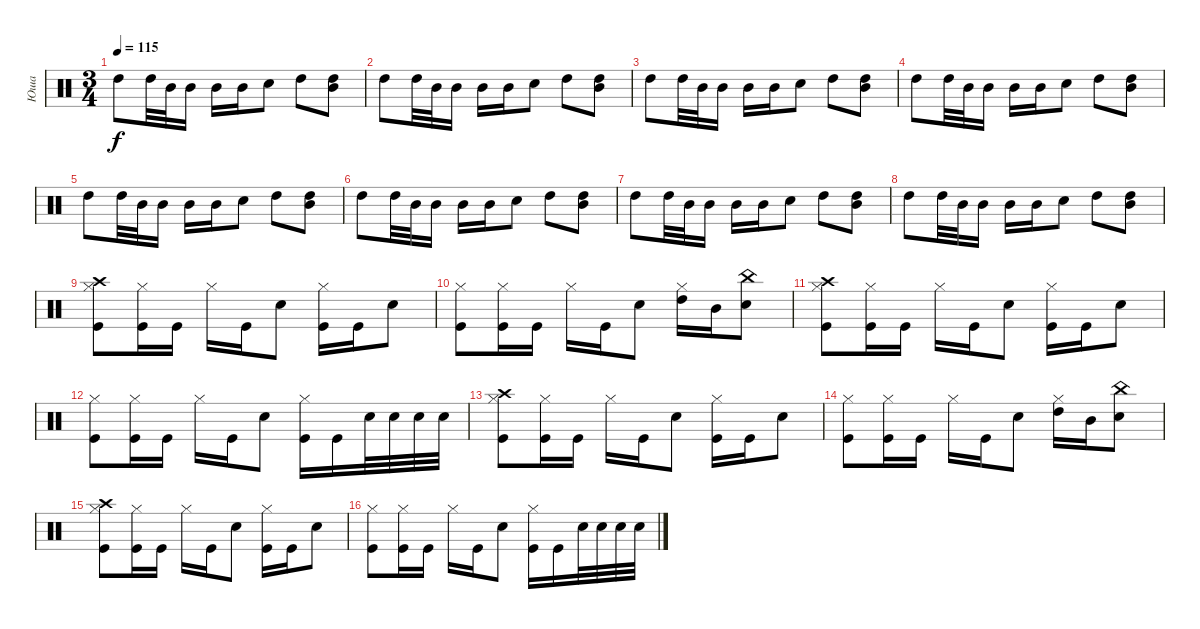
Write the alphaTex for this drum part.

\track ("Юша" "Юша") {instrument percussion}
\staff {score}
\articulation defaults
\ts (3 4)
\tempo 115
\clef neutral
\ks c "High Tom (hit)".8{dy f} "High Tom (hit)".32 "Mid Tom (hit)".32 "Mid Tom (hit)".16 "Mid Tom (hit)".16 "Mid Tom (hit)".16 "Snare (hit) 2".8 "High Tom (hit)".8
("High Tom (hit)" "Mid Tom (hit)").8 |
"High Tom (hit)".8 "High Tom (hit)".32 "Mid Tom (hit)".32 "Mid Tom (hit)".16 "Mid Tom (hit)".16 "Mid Tom (hit)".16 "Snare (hit) 2".8 "High Tom (hit)".8 ("High Tom (hit)" "Mid Tom (hit)").8 |
"High Tom (hit)".8 "High Tom (hit)".32 "Mid Tom (hit)".32 "Mid Tom (hit)".16 "Mid Tom (hit)".16 "Mid Tom (hit)".16 "Snare (hit) 2".8 "High Tom (hit)".8 ("High Tom (hit)" "Mid Tom (hit)").8 |
"High Tom (hit)".8 "High Tom (hit)".32 "Mid Tom (hit)".32 "Mid Tom (hit)".16 "Mid Tom (hit)".16 "Mid Tom (hit)".16 "Snare (hit) 2".8 "High Tom (hit)".8 ("High Tom (hit)" "Mid Tom (hit)").8 |
"High Tom (hit)".8 "High Tom (hit)".32 "Mid Tom (hit)".32 "Mid Tom (hit)".16 "Mid Tom (hit)".16 "Mid Tom (hit)".16 "Snare (hit) 2".8 "High Tom (hit)".8 ("High Tom (hit)" "Mid Tom (hit)").8 |
"High Tom (hit)".8 "High Tom (hit)".32 "Mid Tom (hit)".32 "Mid Tom (hit)".16 "Mid Tom (hit)".16 "Mid Tom (hit)".16 "Snare (hit) 2".8 "High Tom (hit)".8 ("High Tom (hit)" "Mid Tom (hit)").8 |
"High Tom (hit)".8 "High Tom (hit)".32 "Mid Tom (hit)".32 "Mid Tom (hit)".16 "Mid Tom (hit)".16 "Mid Tom (hit)".16 "Snare (hit) 2".8 "High Tom (hit)".8 ("High Tom (hit)" "Mid Tom (hit)").8 |
"High Tom (hit)".8 "High Tom (hit)".32 "Mid Tom (hit)".32 "Mid Tom (hit)".16 "Mid Tom (hit)".16 "Mid Tom (hit)".16 "Snare (hit) 2".8 "High Tom (hit)".8 ("High Tom (hit)" "Mid Tom (hit)").8 |
("Hi-Hat (closed)" "Kick (hit)" "Crash high (hit)").8 ("Kick (hit)" "Hi-Hat (closed)").16 "Kick (hit)".16 "Hi-Hat (closed)".16 "Kick (hit)".16 "Snare (hit) 2".8 ("Kick (hit)" "Hi-Hat (closed)").16 "Kick (hit)".16 "Snare (hit) 2".8 |
("Hi-Hat (closed)" "Kick (hit)").8 ("Kick (hit)" "Hi-Hat (closed)").16 "Kick (hit)".16 "Hi-Hat (closed)".16 "Kick (hit)".16 "Snare (hit) 2".8 ("Hi-Hat (closed)" "High Tom (hit)").16 "Mid Tom (hit)".16 ("Snare (hit) 2" "China (hit)").8 |
("Hi-Hat (closed)" "Kick (hit)" "Crash high (hit)").8 ("Kick (hit)" "Hi-Hat (closed)").16 "Kick (hit)".16 "Hi-Hat (closed)".16 "Kick (hit)".16 "Snare (hit) 2".8 ("Kick (hit)" "Hi-Hat (closed)").16 "Kick (hit)".16 "Snare (hit) 2".8 |
("Hi-Hat (closed)" "Kick (hit)").8 ("Kick (hit)" "Hi-Hat (closed)").16 "Kick (hit)".16 "Hi-Hat (closed)".16 "Kick (hit)".16 "Snare (hit) 2".8 ("Kick (hit)" "Hi-Hat (closed)").16 "Kick (hit)".16 "Snare (hit) 2".32 "Snare (hit) 2".32 "Snare (hit) 2".32 "Snare (hit) 2".32 |
("Hi-Hat (closed)" "Kick (hit)" "Crash high (hit)").8 ("Kick (hit)" "Hi-Hat (closed)").16 "Kick (hit)".16 "Hi-Hat (closed)".16 "Kick (hit)".16 "Snare (hit) 2".8 ("Kick (hit)" "Hi-Hat (closed)").16 "Kick (hit)".16 "Snare (hit) 2".8 |
("Hi-Hat (closed)" "Kick (hit)").8 ("Kick (hit)" "Hi-Hat (closed)").16 "Kick (hit)".16 "Hi-Hat (closed)".16 "Kick (hit)".16 "Snare (hit) 2".8 ("Hi-Hat (closed)" "High Tom (hit)").16 "Mid Tom (hit)".16 ("Snare (hit) 2" "China (hit)").8 |
("Hi-Hat (closed)" "Kick (hit)" "Crash high (hit)").8 ("Kick (hit)" "Hi-Hat (closed)").16 "Kick (hit)".16 "Hi-Hat (closed)".16 "Kick (hit)".16 "Snare (hit) 2".8 ("Kick (hit)" "Hi-Hat (closed)").16 "Kick (hit)".16 "Snare (hit) 2".8 |
("Hi-Hat (closed)" "Kick (hit)").8 ("Kick (hit)" "Hi-Hat (closed)").16 "Kick (hit)".16 "Hi-Hat (closed)".16 "Kick (hit)".16 "Snare (hit) 2".8 ("Kick (hit)" "Hi-Hat (closed)").16 "Kick (hit)".16 "Snare (hit) 2".32 "Snare (hit) 2".32 "Snare (hit) 2".32 "Snare (hit) 2".32
